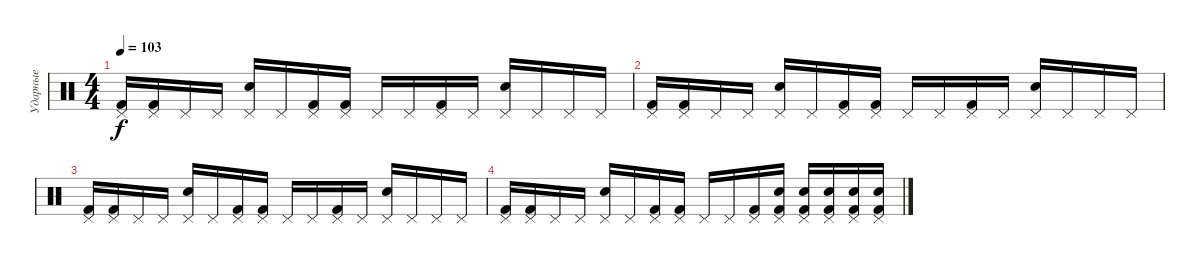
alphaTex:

\track ("Ударные" "Ударные") {instrument percussion}
\staff {score}
\articulation defaults
\ts (4 4)
\tempo 103
\clef neutral
\ks c
("Pedal Hi-Hat (hit)" "Kick (hit) 2").16{dy f} ("Pedal Hi-Hat (hit)" "Kick (hit) 2").16 "Pedal Hi-Hat (hit)".16 "Pedal Hi-Hat (hit)".16 ("Pedal Hi-Hat (hit)" "Snare (hit) 2").16 "Pedal Hi-Hat (hit)".16 ("Pedal Hi-Hat (hit)" "Kick (hit) 2").16 ("Pedal Hi-Hat (hit)" "Kick (hit) 2").16 "Pedal Hi-Hat (hit)".16 "Pedal Hi-Hat (hit)".16 ("Pedal Hi-Hat (hit)" "Kick (hit) 2").16 "Pedal Hi-Hat (hit)".16 ("Pedal Hi-Hat (hit)" "Snare (hit) 2").16 "Pedal Hi-Hat (hit)".16 "Pedal Hi-Hat (hit)".16 "Pedal Hi-Hat (hit)".16 |
("Pedal Hi-Hat (hit)" "Kick (hit) 2").16 ("Pedal Hi-Hat (hit)" "Kick (hit) 2").16 "Pedal Hi-Hat (hit)".16 "Pedal Hi-Hat (hit)".16 ("Pedal Hi-Hat (hit)" "Snare (hit) 2").16 "Pedal Hi-Hat (hit)".16 ("Pedal Hi-Hat (hit)" "Kick (hit) 2").16 ("Pedal Hi-Hat (hit)" "Kick (hit) 2").16 "Pedal Hi-Hat (hit)".16 "Pedal Hi-Hat (hit)".16 ("Pedal Hi-Hat (hit)" "Kick (hit) 2").16 "Pedal Hi-Hat (hit)".16 ("Pedal Hi-Hat (hit)" "Snare (hit) 2").16 "Pedal Hi-Hat (hit)".16 "Pedal Hi-Hat (hit)".16 "Pedal Hi-Hat (hit)".16 |
("Pedal Hi-Hat (hit)" "Kick (hit) 2").16 ("Pedal Hi-Hat (hit)" "Kick (hit) 2").16 "Pedal Hi-Hat (hit)".16 "Pedal Hi-Hat (hit)".16 ("Pedal Hi-Hat (hit)" "Snare (hit) 2").16 "Pedal Hi-Hat (hit)".16 ("Pedal Hi-Hat (hit)" "Kick (hit) 2").16 ("Pedal Hi-Hat (hit)" "Kick (hit) 2").16 "Pedal Hi-Hat (hit)".16 "Pedal Hi-Hat (hit)".16 ("Pedal Hi-Hat (hit)" "Kick (hit) 2").16 "Pedal Hi-Hat (hit)".16 ("Pedal Hi-Hat (hit)" "Snare (hit) 2").16 "Pedal Hi-Hat (hit)".16 "Pedal Hi-Hat (hit)".16 "Pedal Hi-Hat (hit)".16 |
("Pedal Hi-Hat (hit)" "Kick (hit) 2").16 ("Pedal Hi-Hat (hit)" "Kick (hit) 2").16 "Pedal Hi-Hat (hit)".16 "Pedal Hi-Hat (hit)".16 ("Pedal Hi-Hat (hit)" "Snare (hit) 2").16 "Pedal Hi-Hat (hit)".16 ("Pedal Hi-Hat (hit)" "Kick (hit) 2").16 ("Pedal Hi-Hat (hit)" "Kick (hit) 2").16 "Pedal Hi-Hat (hit)".16 "Pedal Hi-Hat (hit)".16 ("Pedal Hi-Hat (hit)" "Kick (hit) 2").16 ("Pedal Hi-Hat (hit)" "Snare (hit) 2" "Kick (hit) 2").16 ("Pedal Hi-Hat (hit)" "Snare (hit) 2" "Kick (hit) 2").16 ("Pedal Hi-Hat (hit)" "Snare (hit) 2" "Kick (hit) 2").16 ("Pedal Hi-Hat (hit)" "Snare (hit) 2" "Kick (hit) 2").16 ("Pedal Hi-Hat (hit)" "Snare (hit) 2" "Kick (hit) 2").16
